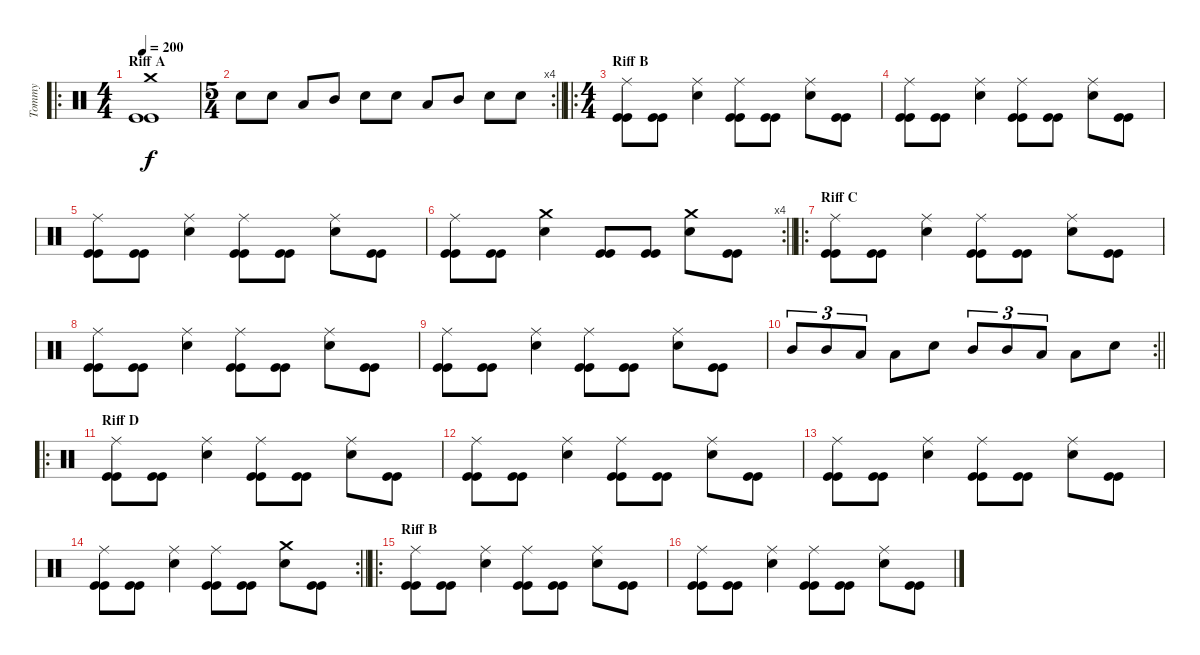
\track ("Tommy" "Tommy") {instrument percussion}
\staff {score}
\articulation defaults
\ro
\ts (4 4)
\section ("" "Riff A")
\tempo 200
\clef neutral
\ks c
("Crash medium (hit)" "Kick (hit)" "Kick (hit)").1{dy f} |
\rc 4
\ts (5 4)
\barLineRight lightlight "Snare (hit) 2".8 "Snare (hit) 2".8 "Low Tom (hit)".8 "Mid Tom (hit)".8 "Snare (hit) 2".8 "Snare (hit) 2".8 "Low Tom (hit)".8 "Mid Tom (hit)".8 "Snare (hit) 2".8 "Snare (hit) 2".8
|
\ro
\ts (4 4)
\section ("" "Riff B")
("Ride (middle)" "Kick (hit)" "Kick (hit)").8 ("Kick (hit)" "Kick (hit)").8 ("Ride (middle)" "Snare (hit) 2").4 ("Ride (middle)" "Kick (hit)" "Kick (hit)").8 ("Kick (hit)" "Kick (hit)").8 ("Ride (middle)" "Snare (hit) 2").8 ("Kick (hit)" "Kick (hit)").8 |
("Ride (middle)" "Kick (hit)" "Kick (hit)").8 ("Kick (hit)" "Kick (hit)").8 ("Ride (middle)" "Snare (hit) 2").4 ("Ride (middle)" "Kick (hit)" "Kick (hit)").8 ("Kick (hit)" "Kick (hit)").8 ("Ride (middle)" "Snare (hit) 2").8 ("Kick (hit)" "Kick (hit)").8 |
("Ride (middle)" "Kick (hit)" "Kick (hit)").8 ("Kick (hit)" "Kick (hit)").8 ("Ride (middle)" "Snare (hit) 2").4 ("Ride (middle)" "Kick (hit)" "Kick (hit)").8 ("Kick (hit)" "Kick (hit)").8 ("Ride (middle)" "Snare (hit) 2").8 ("Kick (hit)" "Kick (hit)").8 |
\rc 4
\barLineRight lightlight
("Ride (middle)" "Kick (hit)" "Kick (hit)").8 ("Kick (hit)" "Kick (hit)").8 ("Crash medium (hit)" "Snare (hit) 2").4 ("Kick (hit)" "Kick (hit)").8 ("Kick (hit)" "Kick (hit)").8 ("Crash medium (hit)" "Snare (hit) 2").8 ("Kick (hit)" "Kick (hit)").8 |
\ro
\section ("" "Riff C")
("Ride (middle)" "Kick (hit)" "Kick (hit)").8 ("Kick (hit)" "Kick (hit)").8 ("Ride (middle)" "Snare (hit) 2").4 ("Ride (middle)" "Kick (hit)" "Kick (hit)").8 ("Kick (hit)" "Kick (hit)").8 ("Ride (middle)" "Snare (hit) 2").8 ("Kick (hit)" "Kick (hit)").8 |
("Ride (middle)" "Kick (hit)" "Kick (hit)").8 ("Kick (hit)" "Kick (hit)").8 ("Ride (middle)" "Snare (hit) 2").4 ("Ride (middle)" "Kick (hit)" "Kick (hit)").8 ("Kick (hit)" "Kick (hit)").8 ("Ride (middle)" "Snare (hit) 2").8 ("Kick (hit)" "Kick (hit)").8 |
("Ride (middle)" "Kick (hit)" "Kick (hit)").8 ("Kick (hit)" "Kick (hit)").8 ("Ride (middle)" "Snare (hit) 2").4 ("Ride (middle)" "Kick (hit)" "Kick (hit)").8 ("Kick (hit)" "Kick (hit)").8 ("Ride (middle)" "Snare (hit) 2").8 ("Kick (hit)" "Kick (hit)").8 |
\rc 2
\barLineRight lightlight "Mid Tom (hit)".8{tu (3 2)} "Mid Tom (hit)".8{tu (3 2)} "Low Tom (hit)".8{tu (3 2)} "Low Tom (hit)".8 "Snare (hit) 2".8 "Mid Tom (hit)".8{tu (3 2)} "Mid Tom (hit)".8{tu (3 2)} "Low Tom (hit)".8{tu (3 2)} "Low Tom (hit)".8 "Snare (hit) 2".8
|
\ro
\section ("" "Riff D")
("Ride (middle)" "Kick (hit)" "Kick (hit)").8 ("Kick (hit)" "Kick (hit)").8 ("Ride (middle)" "Snare (hit) 2").4 ("Ride (middle)" "Kick (hit)" "Kick (hit)").8 ("Kick (hit)" "Kick (hit)").8 ("Ride (middle)" "Snare (hit) 2").8 ("Kick (hit)" "Kick (hit)").8 |
("Ride (middle)" "Kick (hit)" "Kick (hit)").8 ("Kick (hit)" "Kick (hit)").8 ("Ride (middle)" "Snare (hit) 2").4 ("Ride (middle)" "Kick (hit)" "Kick (hit)").8 ("Kick (hit)" "Kick (hit)").8 ("Ride (middle)" "Snare (hit) 2").8 ("Kick (hit)" "Kick (hit)").8 |
("Ride (middle)" "Kick (hit)" "Kick (hit)").8 ("Kick (hit)" "Kick (hit)").8 ("Ride (middle)" "Snare (hit) 2").4 ("Ride (middle)" "Kick (hit)" "Kick (hit)").8 ("Kick (hit)" "Kick (hit)").8 ("Ride (middle)" "Snare (hit) 2").8 ("Kick (hit)" "Kick (hit)").8 |
\rc 2
\barLineRight lightlight
("Ride (middle)" "Kick (hit)" "Kick (hit)").8 ("Kick (hit)" "Kick (hit)").8 ("Ride (middle)" "Snare (hit) 2").4 ("Ride (middle)" "Kick (hit)" "Kick (hit)").8 ("Kick (hit)" "Kick (hit)").8 ("Crash medium (hit)" "Snare (hit) 2").8 ("Kick (hit)" "Kick (hit)").8 |
\ro
\section ("" "Riff B")
("Ride (middle)" "Kick (hit)" "Kick (hit)").8 ("Kick (hit)" "Kick (hit)").8 ("Ride (middle)" "Snare (hit) 2").4 ("Ride (middle)" "Kick (hit)" "Kick (hit)").8 ("Kick (hit)" "Kick (hit)").8 ("Ride (middle)" "Snare (hit) 2").8 ("Kick (hit)" "Kick (hit)").8 |
("Ride (middle)" "Kick (hit)" "Kick (hit)").8 ("Kick (hit)" "Kick (hit)").8 ("Ride (middle)" "Snare (hit) 2").4 ("Ride (middle)" "Kick (hit)" "Kick (hit)").8 ("Kick (hit)" "Kick (hit)").8 ("Ride (middle)" "Snare (hit) 2").8 ("Kick (hit)" "Kick (hit)").8
